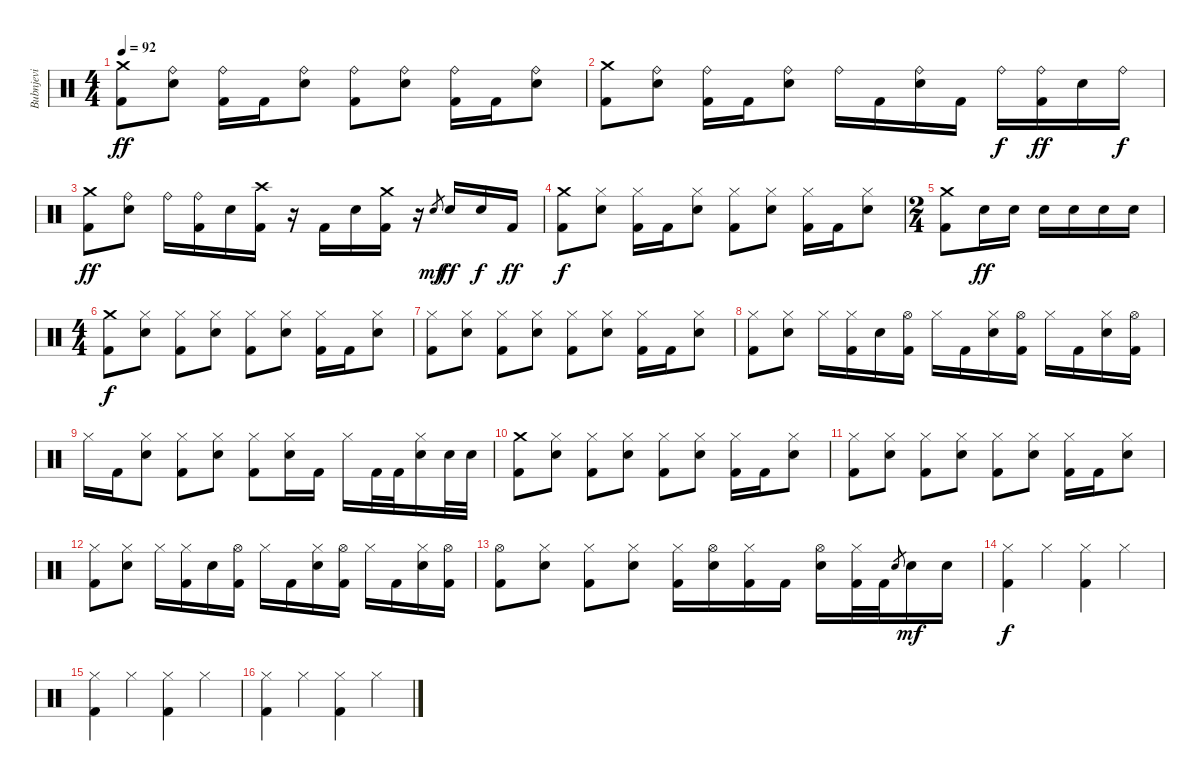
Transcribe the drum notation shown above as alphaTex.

\track ("Bubnjevi" "Bubnjevi") {instrument percussion}
\staff {score}
\articulation defaults
\ts (4 4)
\tempo 92
\clef neutral
\ks c
("Crash medium (hit)" "Kick (hit) 2").8{dy ff} ("Ride (bell)" "Electric Snare (hit)").8 ("Ride (bell)" "Kick (hit) 2").16 "Kick (hit) 2".16 ("Ride (bell)" "Electric Snare (hit)").8 ("Ride (bell)" "Kick (hit) 2").8 ("Ride (bell)" "Electric Snare (hit)").8 ("Ride (bell)" "Kick (hit) 2").16 "Kick (hit) 2".16 ("Ride (bell)" "Electric Snare (hit)").8 |
("Crash medium (hit)" "Kick (hit) 2").8 ("Ride (bell)" "Electric Snare (hit)").8 ("Ride (bell)" "Kick (hit) 2").16 "Kick (hit) 2".16 ("Ride (bell)" "Electric Snare (hit)").8 "Ride (bell)".16 "Kick (hit) 2".16 ("Ride (bell)" "Electric Snare (hit)").16 "Kick (hit) 2".16 "Ride (bell)".16{dy f} ("Ride (bell)" "Kick (hit) 2").16{dy ff} "Electric Snare (hit)".16 "Ride (bell)".16{dy f} |
("Crash medium (hit)" "Kick (hit) 2").8{dy ff} ("Ride (bell)" "Electric Snare (hit)").8 "Ride (bell)".16 ("Ride (bell)" "Kick (hit) 2").16 "Electric Snare (hit)".16 ("Crash high (hit)" "Kick (hit) 2").16 r.16 "Kick (hit) 2".16 "Electric Snare (hit)".16 ("Crash medium (hit)" "Kick (hit) 2").16 r.16 "Electric Snare (hit)".8{gr dy mf} "Electric Snare (hit)".16{dy ff} "Electric Snare (hit)".16{dy f} "Kick (hit) 2".16{dy ff} |
("Crash medium (hit)" "Kick (hit) 2").8{dy f} ("Hi-Hat (closed)" "Electric Snare (hit)").8 ("Hi-Hat (closed)" "Kick (hit) 2").16 "Kick (hit) 2".16 ("Hi-Hat (closed)" "Electric Snare (hit)").8 ("Hi-Hat (closed)" "Kick (hit) 2").8 ("Hi-Hat (closed)" "Electric Snare (hit)").8 ("Hi-Hat (closed)" "Kick (hit) 2").16 "Kick (hit) 2".16 ("Hi-Hat (closed)" "Electric Snare (hit)").8 |
\ts (2 4)
("Crash medium (hit)" "Kick (hit) 2").8 "Electric Snare (hit)".16{dy ff} "Electric Snare (hit)".16 "Electric Snare (hit)".16 "Electric Snare (hit)".16 "Electric Snare (hit)".16 "Electric Snare (hit)".16 |
\ts (4 4)
("Crash medium (hit)" "Kick (hit) 2").8{dy f} ("Hi-Hat (closed)" "Electric Snare (hit)").8 ("Hi-Hat (closed)" "Kick (hit) 2").8 ("Hi-Hat (closed)" "Electric Snare (hit)").8 ("Hi-Hat (closed)" "Kick (hit) 2").8 ("Hi-Hat (closed)" "Electric Snare (hit)").8 ("Hi-Hat (closed)" "Kick (hit) 2").16 "Kick (hit) 2".16 ("Hi-Hat (closed)" "Electric Snare (hit)").8 |
("Hi-Hat (closed)" "Kick (hit) 2").8 ("Hi-Hat (closed)" "Electric Snare (hit)").8 ("Hi-Hat (closed)" "Kick (hit) 2").8 ("Hi-Hat (closed)" "Electric Snare (hit)").8 ("Hi-Hat (closed)" "Kick (hit) 2").8 ("Hi-Hat (closed)" "Electric Snare (hit)").8 ("Hi-Hat (closed)" "Kick (hit) 2").16 "Kick (hit) 2".16 ("Hi-Hat (closed)" "Electric Snare (hit)").8 |
("Hi-Hat (closed)" "Kick (hit) 2").8 ("Hi-Hat (closed)" "Electric Snare (hit)").8 "Hi-Hat (closed)".16 ("Hi-Hat (closed)" "Kick (hit) 2").16 "Electric Snare (hit)".16 ("Hi-Hat (open)" "Kick (hit) 2").16 "Hi-Hat (closed)".16 "Kick (hit) 2".16 ("Hi-Hat (closed)" "Electric Snare (hit)").16 ("Hi-Hat (open)" "Kick (hit) 2").16 "Hi-Hat (closed)".16 "Kick (hit) 2".16 ("Hi-Hat (closed)" "Electric Snare (hit)").16 ("Hi-Hat (open)" "Kick (hit) 2").16 |
"Hi-Hat (closed)".16 "Kick (hit) 2".16 ("Hi-Hat (closed)" "Electric Snare (hit)").8 ("Hi-Hat (closed)" "Kick (hit) 2").8 ("Hi-Hat (closed)" "Electric Snare (hit)").8 ("Hi-Hat (closed)" "Kick (hit) 2").8 ("Hi-Hat (closed)" "Electric Snare (hit)").16 "Kick (hit) 2".16 "Hi-Hat (closed)".16 "Kick (hit) 2".32 "Kick (hit) 2".32 ("Hi-Hat (closed)" "Electric Snare (hit)").16 "Electric Snare (hit)".32 "Electric Snare (hit)".32 |
("Crash medium (hit)" "Kick (hit) 2").8 ("Hi-Hat (closed)" "Electric Snare (hit)").8 ("Hi-Hat (closed)" "Kick (hit) 2").8 ("Hi-Hat (closed)" "Electric Snare (hit)").8 ("Hi-Hat (closed)" "Kick (hit) 2").8 ("Hi-Hat (closed)" "Electric Snare (hit)").8 ("Hi-Hat (closed)" "Kick (hit) 2").16 "Kick (hit) 2".16 ("Hi-Hat (closed)" "Electric Snare (hit)").8 |
("Hi-Hat (closed)" "Kick (hit) 2").8 ("Hi-Hat (closed)" "Electric Snare (hit)").8 ("Hi-Hat (closed)" "Kick (hit) 2").8 ("Hi-Hat (closed)" "Electric Snare (hit)").8 ("Hi-Hat (closed)" "Kick (hit) 2").8 ("Hi-Hat (closed)" "Electric Snare (hit)").8 ("Hi-Hat (closed)" "Kick (hit) 2").16 "Kick (hit) 2".16 ("Hi-Hat (closed)" "Electric Snare (hit)").8 |
("Hi-Hat (closed)" "Kick (hit) 2").8 ("Hi-Hat (closed)" "Electric Snare (hit)").8 "Hi-Hat (closed)".16 ("Hi-Hat (closed)" "Kick (hit) 2").16 "Electric Snare (hit)".16 ("Hi-Hat (open)" "Kick (hit) 2").16 "Hi-Hat (closed)".16 "Kick (hit) 2".16 ("Hi-Hat (closed)" "Electric Snare (hit)").16 ("Hi-Hat (open)" "Kick (hit) 2").16 "Hi-Hat (closed)".16 "Kick (hit) 2".16 ("Hi-Hat (closed)" "Electric Snare (hit)").16 ("Hi-Hat (open)" "Kick (hit) 2").16 |
("Hi-Hat (open)" "Kick (hit) 2").8 ("Hi-Hat (closed)" "Electric Snare (hit)").8 ("Hi-Hat (closed)" "Kick (hit) 2").8 ("Hi-Hat (closed)" "Electric Snare (hit)").8 ("Hi-Hat (closed)" "Kick (hit) 2").16 ("Hi-Hat (open)" "Electric Snare (hit)").16 ("Hi-Hat (closed)" "Kick (hit) 2").16 "Kick (hit) 2".16 ("Hi-Hat (open)" "Electric Snare (hit)").16 ("Hi-Hat (closed)" "Kick (hit) 2").32 "Kick (hit) 2".32 "Electric Snare (hit)".8{gr} "Electric Snare (hit)".16{dy mf} "Electric Snare (hit)".16 |
("Hi-Hat (closed)" "Kick (hit) 2").4{dy f} "Hi-Hat (closed)".4 ("Hi-Hat (closed)" "Kick (hit) 2").4 "Hi-Hat (closed)".4 |
("Hi-Hat (closed)" "Kick (hit) 2").4 "Hi-Hat (closed)".4 ("Hi-Hat (closed)" "Kick (hit) 2").4 "Hi-Hat (closed)".4 |
("Hi-Hat (closed)" "Kick (hit) 2").4 "Hi-Hat (closed)".4 ("Hi-Hat (closed)" "Kick (hit) 2").4 "Hi-Hat (closed)".4
